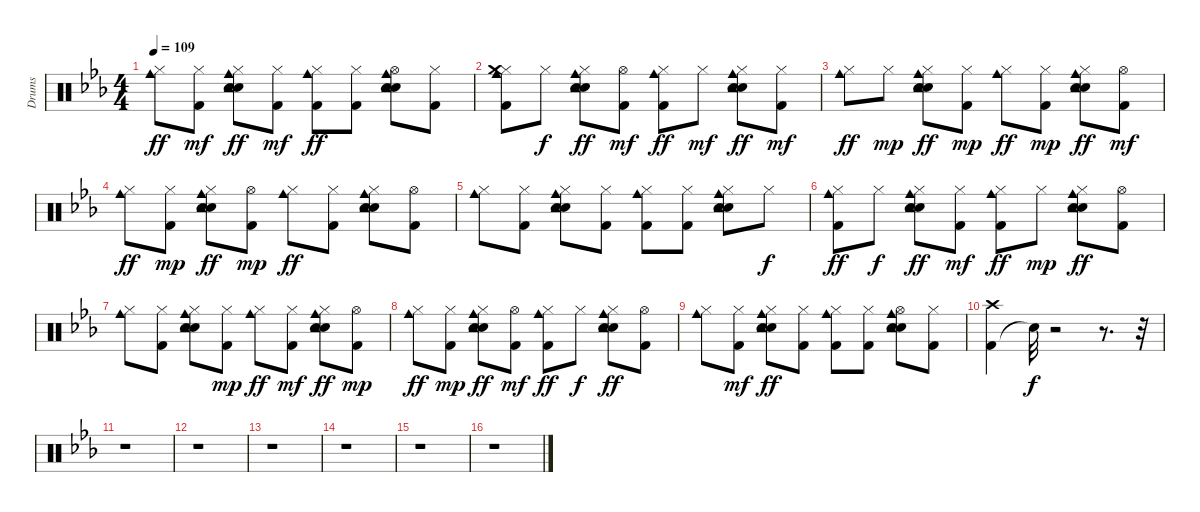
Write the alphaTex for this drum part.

\track ("Drums" "Drums") {instrument percussion}
\staff {score}
\articulation defaults
\ts (4 4)
\tempo 109
\clef neutral
\ks eb
("Hi-Hat (closed)" "Cowbell medium (hit)").8{dy ff} ("Kick (hit) 2" "Hi-Hat (closed)").8{dy mf} ("Hand Clap (hit)" "Electric Snare (hit)" "Hi-Hat (closed)" "Tambourine (hit)" "Cowbell medium (hit)").8{dy ff} ("Kick (hit) 2" "Hi-Hat (closed)").8{dy mf} ("Kick (hit) 2" "Hi-Hat (closed)" "Cowbell medium (hit)").8{dy ff} ("Kick (hit) 2" "Hi-Hat (closed)").8 ("Hand Clap (hit)" "Electric Snare (hit)" "Hi-Hat (open)" "Tambourine (hit)" "Cowbell medium (hit)").8 ("Kick (hit) 2" "Hi-Hat (closed)").8 |
("Kick (hit) 2" "Hi-Hat (closed)" "Cowbell medium (hit)" "Crash medium (hit)").8 "Hi-Hat (closed)".8{dy f} ("Hand Clap (hit)" "Electric Snare (hit)" "Hi-Hat (closed)" "Tambourine (hit)" "Cowbell medium (hit)").8{dy ff} ("Kick (hit) 2" "Hi-Hat (open)").8{dy mf} ("Kick (hit) 2" "Hi-Hat (closed)" "Cowbell medium (hit)").8{dy ff} "Hi-Hat (closed)".8{dy mf} ("Hand Clap (hit)" "Electric Snare (hit)" "Hi-Hat (closed)" "Tambourine (hit)" "Cowbell medium (hit)").8{dy ff} ("Kick (hit) 2" "Hi-Hat (closed)").8{dy mf} |
("Hi-Hat (closed)" "Cowbell medium (hit)").8{dy ff} "Hi-Hat (closed)".8{dy mp} ("Hand Clap (hit)" "Electric Snare (hit)" "Hi-Hat (closed)" "Tambourine (hit)" "Cowbell medium (hit)").8{dy ff} ("Kick (hit) 2" "Hi-Hat (closed)").8{dy mp} ("Hi-Hat (closed)" "Cowbell medium (hit)").8{dy ff} ("Kick (hit) 2" "Hi-Hat (closed)").8{dy mp} ("Hand Clap (hit)" "Electric Snare (hit)" "Hi-Hat (closed)" "Tambourine (hit)" "Cowbell medium (hit)").8{dy ff} ("Kick (hit) 2" "Hi-Hat (open)").8{dy mf} |
("Hi-Hat (closed)" "Cowbell medium (hit)").8{dy ff} ("Kick (hit) 2" "Hi-Hat (closed)").8{dy mp} ("Hand Clap (hit)" "Electric Snare (hit)" "Hi-Hat (closed)" "Tambourine (hit)" "Cowbell medium (hit)").8{dy ff} ("Kick (hit) 2" "Hi-Hat (open)").8{dy mp} ("Hi-Hat (closed)" "Cowbell medium (hit)").8{dy ff} ("Kick (hit) 2" "Hi-Hat (closed)").8 ("Hand Clap (hit)" "Electric Snare (hit)" "Hi-Hat (closed)" "Tambourine (hit)" "Cowbell medium (hit)").8 ("Kick (hit) 2" "Hi-Hat (open)").8 |
("Hi-Hat (closed)" "Cowbell medium (hit)").8 ("Kick (hit) 2" "Hi-Hat (closed)").8 ("Hand Clap (hit)" "Electric Snare (hit)" "Hi-Hat (closed)" "Tambourine (hit)" "Cowbell medium (hit)").8 ("Kick (hit) 2" "Hi-Hat (closed)").8 ("Kick (hit) 2" "Hi-Hat (closed)" "Cowbell medium (hit)").8 ("Kick (hit) 2" "Hi-Hat (closed)").8 ("Hand Clap (hit)" "Electric Snare (hit)" "Hi-Hat (closed)" "Tambourine (hit)" "Cowbell medium (hit)").8 "Hi-Hat (closed)".8{dy f} |
("Kick (hit) 2" "Hi-Hat (closed)" "Cowbell medium (hit)").8{dy ff} "Hi-Hat (closed)".8{dy f} ("Hand Clap (hit)" "Electric Snare (hit)" "Hi-Hat (closed)" "Tambourine (hit)" "Cowbell medium (hit)").8{dy ff} ("Kick (hit) 2" "Hi-Hat (closed)").8{dy mf} ("Kick (hit) 2" "Hi-Hat (closed)" "Cowbell medium (hit)").8{dy ff} "Hi-Hat (closed)".8{dy mp} ("Hand Clap (hit)" "Electric Snare (hit)" "Hi-Hat (closed)" "Tambourine (hit)" "Cowbell medium (hit)").8{dy ff} ("Kick (hit) 2" "Hi-Hat (open)").8 |
("Hi-Hat (closed)" "Cowbell medium (hit)").8 ("Kick (hit) 2" "Hi-Hat (closed)").8 ("Hand Clap (hit)" "Electric Snare (hit)" "Hi-Hat (closed)" "Tambourine (hit)" "Cowbell medium (hit)").8 ("Kick (hit) 2" "Hi-Hat (closed)").8{dy mp} ("Hi-Hat (closed)" "Cowbell medium (hit)").8{dy ff} ("Kick (hit) 2" "Hi-Hat (closed)").8{dy mf} ("Hand Clap (hit)" "Electric Snare (hit)" "Hi-Hat (closed)" "Tambourine (hit)" "Cowbell medium (hit)").8{dy ff} ("Kick (hit) 2" "Hi-Hat (open)").8{dy mp} |
("Hi-Hat (closed)" "Cowbell medium (hit)").8{dy ff} ("Kick (hit) 2" "Hi-Hat (closed)").8{dy mp} ("Hand Clap (hit)" "Electric Snare (hit)" "Hi-Hat (closed)" "Tambourine (hit)" "Cowbell medium (hit)").8{dy ff} ("Kick (hit) 2" "Hi-Hat (open)").8{dy mf} ("Kick (hit) 2" "Hi-Hat (closed)" "Cowbell medium (hit)").8{dy ff} "Hi-Hat (closed)".8{dy f} ("Hand Clap (hit)" "Electric Snare (hit)" "Hi-Hat (closed)" "Tambourine (hit)" "Cowbell medium (hit)").8{dy ff} ("Kick (hit) 2" "Hi-Hat (open)").8 |
("Hi-Hat (closed)" "Cowbell medium (hit)").8 ("Kick (hit) 2" "Hi-Hat (closed)").8{dy mf} ("Hand Clap (hit)" "Electric Snare (hit)" "Hi-Hat (closed)" "Tambourine (hit)" "Cowbell medium (hit)").8{dy ff} ("Kick (hit) 2" "Hi-Hat (closed)").8 ("Kick (hit) 2" "Hi-Hat (closed)" "Cowbell medium (hit)").8 ("Kick (hit) 2" "Hi-Hat (closed)").8 ("Hand Clap (hit)" "Electric Snare (hit)" "Hi-Hat (open)" "Tambourine (hit)" "Cowbell medium (hit)").8 ("Kick (hit) 2" "Hi-Hat (closed)").8 |
("Kick (hit) 2" "Crash high (hit)").4 "Snare (hit)"{t}.32{dy f} r.2 r.8{d} r.32 |
r.1 |
r.1 |
r.1 |
r.1 |
r.1 |
r.1
